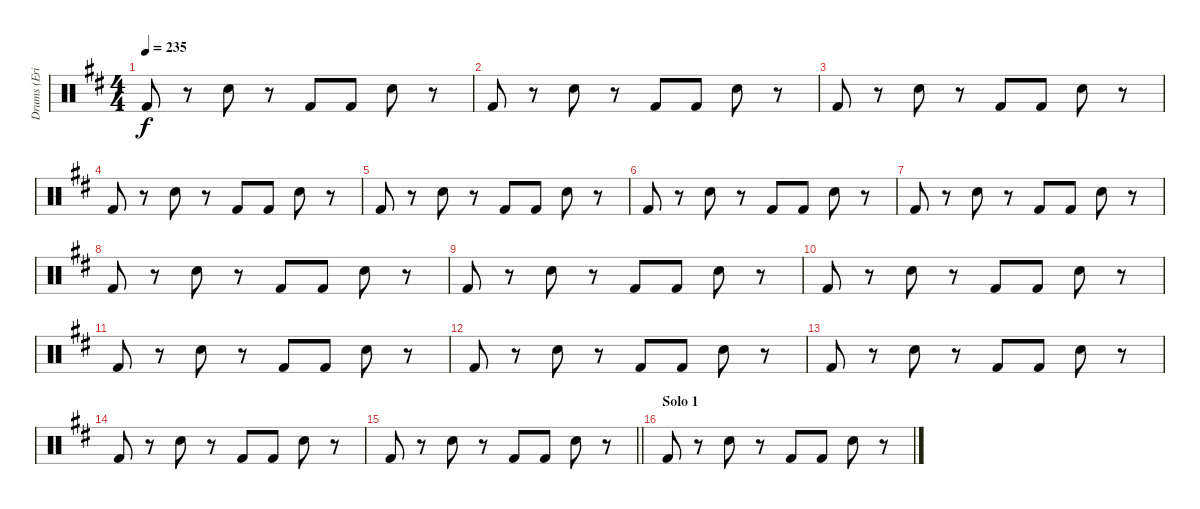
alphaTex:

\track ("Drums (Eric Carr)" "Drums (Eri") {instrument percussion}
\staff {score}
\articulation defaults
\ts (4 4)
\tempo 235
\clef neutral
\ks d "Kick (hit) 2".8{dy f}
r.8 "Snare (hit) 2".8 r.8 "Kick (hit) 2".8 "Kick (hit) 2".8 "Snare (hit) 2".8 r.8 |
"Kick (hit) 2".8 r.8 "Snare (hit) 2".8 r.8 "Kick (hit) 2".8 "Kick (hit) 2".8 "Snare (hit) 2".8 r.8 |
"Kick (hit) 2".8 r.8 "Snare (hit) 2".8 r.8 "Kick (hit) 2".8 "Kick (hit) 2".8 "Snare (hit) 2".8 r.8 |
"Kick (hit) 2".8 r.8 "Snare (hit) 2".8 r.8 "Kick (hit) 2".8 "Kick (hit) 2".8 "Snare (hit) 2".8 r.8 |
"Kick (hit) 2".8 r.8 "Snare (hit) 2".8 r.8 "Kick (hit) 2".8 "Kick (hit) 2".8 "Snare (hit) 2".8 r.8 |
"Kick (hit) 2".8 r.8 "Snare (hit) 2".8 r.8 "Kick (hit) 2".8 "Kick (hit) 2".8 "Snare (hit) 2".8 r.8 |
"Kick (hit) 2".8 r.8 "Snare (hit) 2".8 r.8 "Kick (hit) 2".8 "Kick (hit) 2".8 "Snare (hit) 2".8 r.8 |
"Kick (hit) 2".8 r.8 "Snare (hit) 2".8 r.8 "Kick (hit) 2".8 "Kick (hit) 2".8 "Snare (hit) 2".8 r.8 |
"Kick (hit) 2".8 r.8 "Snare (hit) 2".8 r.8 "Kick (hit) 2".8 "Kick (hit) 2".8 "Snare (hit) 2".8 r.8 |
"Kick (hit) 2".8 r.8 "Snare (hit) 2".8 r.8 "Kick (hit) 2".8 "Kick (hit) 2".8 "Snare (hit) 2".8 r.8 |
"Kick (hit) 2".8 r.8 "Snare (hit) 2".8 r.8 "Kick (hit) 2".8 "Kick (hit) 2".8 "Snare (hit) 2".8 r.8 |
"Kick (hit) 2".8 r.8 "Snare (hit) 2".8 r.8 "Kick (hit) 2".8 "Kick (hit) 2".8 "Snare (hit) 2".8 r.8 |
"Kick (hit) 2".8 r.8 "Snare (hit) 2".8 r.8 "Kick (hit) 2".8 "Kick (hit) 2".8 "Snare (hit) 2".8 r.8 |
"Kick (hit) 2".8 r.8 "Snare (hit) 2".8 r.8 "Kick (hit) 2".8 "Kick (hit) 2".8 "Snare (hit) 2".8 r.8 |
\barLineRight lightlight "Kick (hit) 2".8
r.8 "Snare (hit) 2".8 r.8 "Kick (hit) 2".8 "Kick (hit) 2".8 "Snare (hit) 2".8 r.8 |
\section ("" "Solo 1")
"Kick (hit) 2".8 r.8 "Snare (hit) 2".8 r.8 "Kick (hit) 2".8 "Kick (hit) 2".8 "Snare (hit) 2".8 r.8
